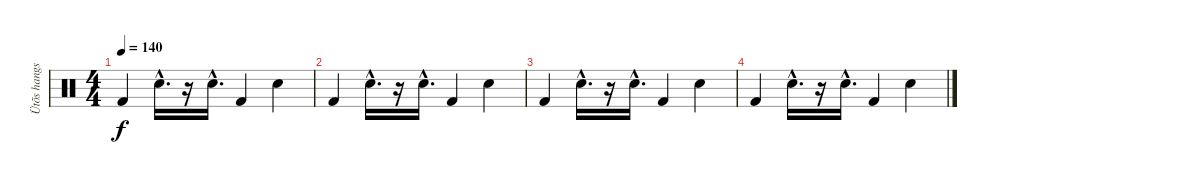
\track ("Ütõs hangszer" "Ütõs hangs") {instrument percussion}
\staff {score}
\articulation defaults
\ts (4 4)
\tempo 140
\clef neutral
\ks c "Kick (hit) 2".4{dy f} "Snare (hit) 2"{hac}.16{d}
r.16 "Snare (hit) 2"{hac}.16{d} "Kick (hit) 2".4 "Snare (hit) 2".4 |
"Kick (hit) 2".4 "Snare (hit) 2"{hac}.16{d} r.16 "Snare (hit) 2"{hac}.16{d} "Kick (hit) 2".4 "Snare (hit) 2".4 |
"Kick (hit) 2".4 "Snare (hit) 2"{hac}.16{d} r.16 "Snare (hit) 2"{hac}.16{d} "Kick (hit) 2".4 "Snare (hit) 2".4 |
"Kick (hit) 2".4 "Snare (hit) 2"{hac}.16{d} r.16 "Snare (hit) 2"{hac}.16{d} "Kick (hit) 2".4 "Snare (hit) 2".4
